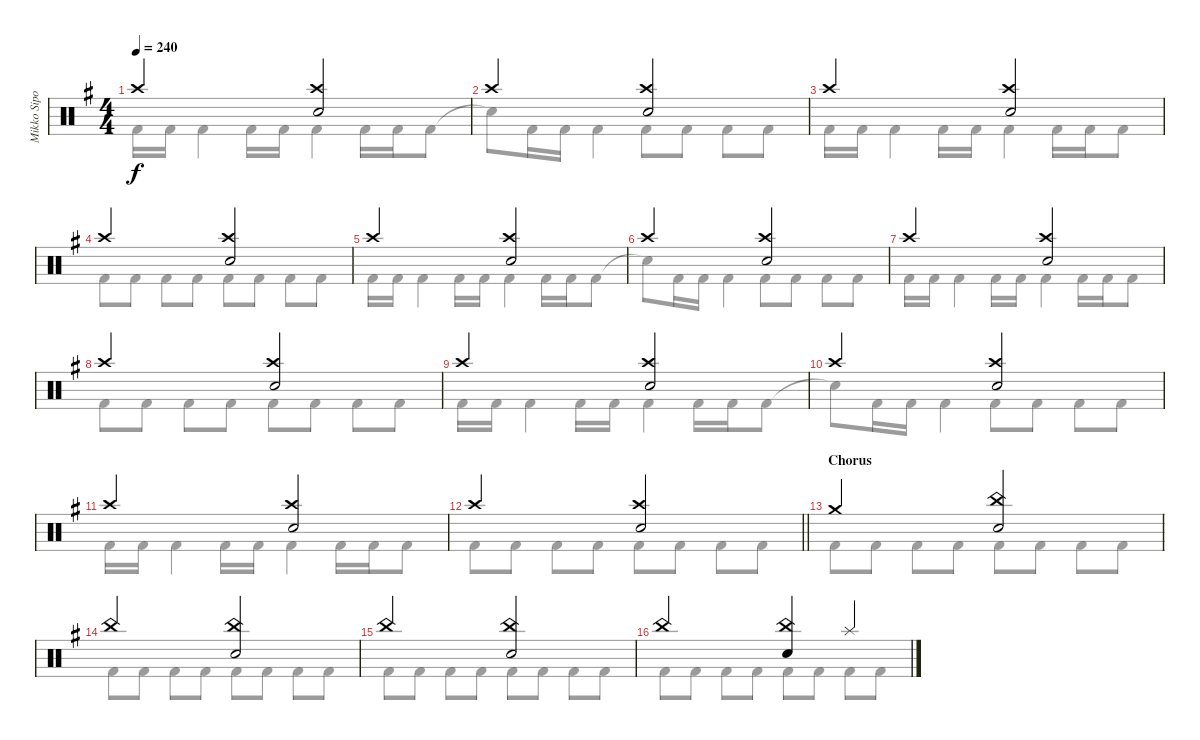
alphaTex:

\track ("Mikko Sipola (drums)" "Mikko Sipo") {instrument percussion}
\staff {score}
\articulation defaults
\voice
\ts (4 4)
\tempo 240
\clef neutral
\ks eminor "Crash high (hit)".2{dy f}
("Electric Snare (hit)" "Crash high (hit)").2 |
"Crash high (hit)".2 ("Electric Snare (hit)" "Crash high (hit)").2 |
"Crash high (hit)".2 ("Electric Snare (hit)" "Crash high (hit)").2 |
"Crash high (hit)".2 ("Electric Snare (hit)" "Crash high (hit)").2 |
"Crash high (hit)".2 ("Electric Snare (hit)" "Crash high (hit)").2 |
"Crash high (hit)".2 ("Electric Snare (hit)" "Crash high (hit)").2 |
"Crash high (hit)".2 ("Electric Snare (hit)" "Crash high (hit)").2 |
"Crash high (hit)".2 ("Electric Snare (hit)" "Crash high (hit)").2 |
"Crash high (hit)".2 ("Electric Snare (hit)" "Crash high (hit)").2 |
"Crash high (hit)".2 ("Electric Snare (hit)" "Crash high (hit)").2 |
"Crash high (hit)".2 ("Electric Snare (hit)" "Crash high (hit)").2 |
\barLineRight lightlight "Crash high (hit)".2
("Electric Snare (hit)" "Crash high (hit)").2 |
\section ("" "Chorus")
"Crash medium (hit)".2 ("Electric Snare (hit)" "China (hit)").2 |
"China (hit)".2 ("Electric Snare (hit)" "China (hit)").2 |
"China (hit)".2 ("Electric Snare (hit)" "China (hit)").2 |
"China (hit)".2 ("Electric Snare (hit)" "China (hit)").4 "Splash (hit)".4
\voice
\clef neutral
\ottava regular
\simile none
\ks eminor "Kick (hit) 2".16{dy f} "Kick (hit) 2".16 "Kick (hit) 2".4 "Kick (hit) 2".16 "Kick (hit) 2".16 "Kick (hit) 2".4 "Kick (hit) 2".16 "Kick (hit) 2".16 "Kick (hit) 2".8
|
"Snare (hit)"{t}.8 "Kick (hit) 2".16 "Kick (hit) 2".16 "Kick (hit) 2".4 "Kick (hit) 2".8 "Kick (hit) 2".8 "Kick (hit) 2".8 "Kick (hit) 2".8 |
"Kick (hit) 2".16 "Kick (hit) 2".16 "Kick (hit) 2".4 "Kick (hit) 2".16 "Kick (hit) 2".16 "Kick (hit) 2".4 "Kick (hit) 2".16 "Kick (hit) 2".16 "Kick (hit) 2".8 |
"Kick (hit) 2".8 "Kick (hit) 2".8 "Kick (hit) 2".8 "Kick (hit) 2".8 "Kick (hit) 2".8 "Kick (hit) 2".8 "Kick (hit) 2".8 "Kick (hit) 2".8 |
"Kick (hit) 2".16 "Kick (hit) 2".16 "Kick (hit) 2".4 "Kick (hit) 2".16 "Kick (hit) 2".16 "Kick (hit) 2".4 "Kick (hit) 2".16 "Kick (hit) 2".16 "Kick (hit) 2".8 |
"Snare (hit)"{t}.8 "Kick (hit) 2".16 "Kick (hit) 2".16 "Kick (hit) 2".4 "Kick (hit) 2".8 "Kick (hit) 2".8 "Kick (hit) 2".8 "Kick (hit) 2".8 |
"Kick (hit) 2".16 "Kick (hit) 2".16 "Kick (hit) 2".4 "Kick (hit) 2".16 "Kick (hit) 2".16 "Kick (hit) 2".4 "Kick (hit) 2".16 "Kick (hit) 2".16 "Kick (hit) 2".8 |
"Kick (hit) 2".8 "Kick (hit) 2".8 "Kick (hit) 2".8 "Kick (hit) 2".8 "Kick (hit) 2".8 "Kick (hit) 2".8 "Kick (hit) 2".8 "Kick (hit) 2".8 |
"Kick (hit) 2".16 "Kick (hit) 2".16 "Kick (hit) 2".4 "Kick (hit) 2".16 "Kick (hit) 2".16 "Kick (hit) 2".4 "Kick (hit) 2".16 "Kick (hit) 2".16 "Kick (hit) 2".8 |
"Snare (hit)"{t}.8 "Kick (hit) 2".16 "Kick (hit) 2".16 "Kick (hit) 2".4 "Kick (hit) 2".8 "Kick (hit) 2".8 "Kick (hit) 2".8 "Kick (hit) 2".8 |
"Kick (hit) 2".16 "Kick (hit) 2".16 "Kick (hit) 2".4 "Kick (hit) 2".16 "Kick (hit) 2".16 "Kick (hit) 2".4 "Kick (hit) 2".16 "Kick (hit) 2".16 "Kick (hit) 2".8 |
\barLineRight lightlight "Kick (hit) 2".8 "Kick (hit) 2".8 "Kick (hit) 2".8 "Kick (hit) 2".8 "Kick (hit) 2".8 "Kick (hit) 2".8 "Kick (hit) 2".8 "Kick (hit) 2".8
|
"Kick (hit) 2".8 "Kick (hit) 2".8 "Kick (hit) 2".8 "Kick (hit) 2".8 "Kick (hit) 2".8 "Kick (hit) 2".8 "Kick (hit) 2".8 "Kick (hit) 2".8 |
"Kick (hit) 2".8 "Kick (hit) 2".8 "Kick (hit) 2".8 "Kick (hit) 2".8 "Kick (hit) 2".8 "Kick (hit) 2".8 "Kick (hit) 2".8 "Kick (hit) 2".8 |
"Kick (hit) 2".8 "Kick (hit) 2".8 "Kick (hit) 2".8 "Kick (hit) 2".8 "Kick (hit) 2".8 "Kick (hit) 2".8 "Kick (hit) 2".8 "Kick (hit) 2".8 |
"Kick (hit) 2".8 "Kick (hit) 2".8 "Kick (hit) 2".8 "Kick (hit) 2".8 "Kick (hit) 2".8 "Kick (hit) 2".8 "Kick (hit) 2".8 "Kick (hit) 2".8
